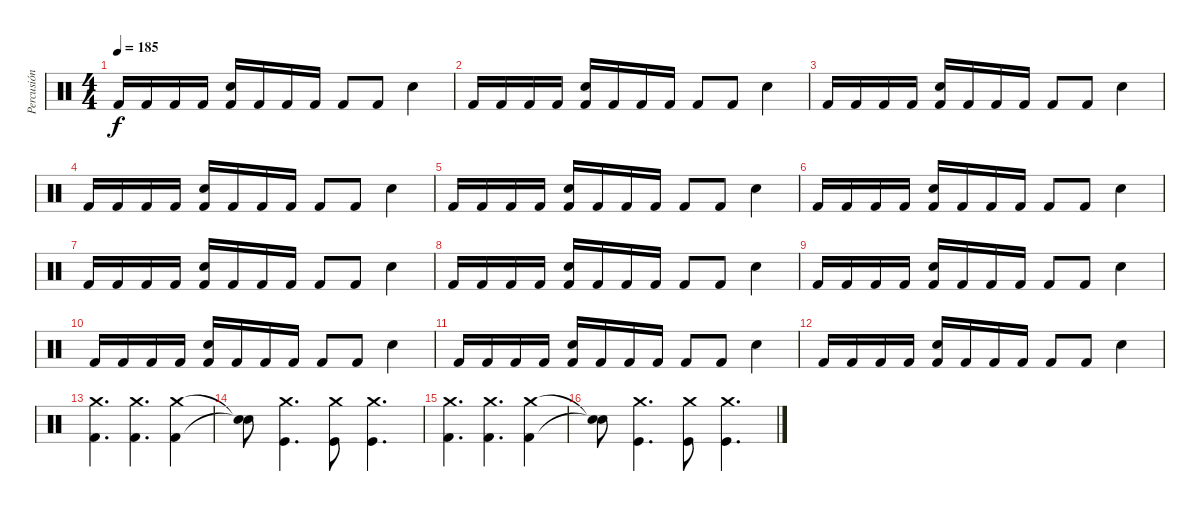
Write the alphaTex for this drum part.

\track ("Percusión" "Percusión") {instrument percussion}
\staff {score}
\articulation defaults
\ts (4 4)
\tempo 185
\clef neutral
\ks c "Kick (hit) 2".16{dy f} "Kick (hit) 2".16 "Kick (hit) 2".16 "Kick (hit) 2".16
("Snare (hit) 2" "Kick (hit) 2").16 "Kick (hit) 2".16 "Kick (hit) 2".16 "Kick (hit) 2".16 "Kick (hit) 2".8 "Kick (hit) 2".8 "Snare (hit) 2".4 |
"Kick (hit) 2".16 "Kick (hit) 2".16 "Kick (hit) 2".16 "Kick (hit) 2".16 ("Snare (hit) 2" "Kick (hit) 2").16 "Kick (hit) 2".16 "Kick (hit) 2".16 "Kick (hit) 2".16 "Kick (hit) 2".8 "Kick (hit) 2".8 "Snare (hit) 2".4 |
"Kick (hit) 2".16 "Kick (hit) 2".16 "Kick (hit) 2".16 "Kick (hit) 2".16 ("Snare (hit) 2" "Kick (hit) 2").16 "Kick (hit) 2".16 "Kick (hit) 2".16 "Kick (hit) 2".16 "Kick (hit) 2".8 "Kick (hit) 2".8 "Snare (hit) 2".4 |
"Kick (hit) 2".16 "Kick (hit) 2".16 "Kick (hit) 2".16 "Kick (hit) 2".16 ("Snare (hit) 2" "Kick (hit) 2").16 "Kick (hit) 2".16 "Kick (hit) 2".16 "Kick (hit) 2".16 "Kick (hit) 2".8 "Kick (hit) 2".8 "Snare (hit) 2".4 |
"Kick (hit) 2".16 "Kick (hit) 2".16 "Kick (hit) 2".16 "Kick (hit) 2".16 ("Snare (hit) 2" "Kick (hit) 2").16 "Kick (hit) 2".16 "Kick (hit) 2".16 "Kick (hit) 2".16 "Kick (hit) 2".8 "Kick (hit) 2".8 "Snare (hit) 2".4 |
"Kick (hit) 2".16 "Kick (hit) 2".16 "Kick (hit) 2".16 "Kick (hit) 2".16 ("Snare (hit) 2" "Kick (hit) 2").16 "Kick (hit) 2".16 "Kick (hit) 2".16 "Kick (hit) 2".16 "Kick (hit) 2".8 "Kick (hit) 2".8 "Snare (hit) 2".4 |
"Kick (hit) 2".16 "Kick (hit) 2".16 "Kick (hit) 2".16 "Kick (hit) 2".16 ("Snare (hit) 2" "Kick (hit) 2").16 "Kick (hit) 2".16 "Kick (hit) 2".16 "Kick (hit) 2".16 "Kick (hit) 2".8 "Kick (hit) 2".8 "Snare (hit) 2".4 |
"Kick (hit) 2".16 "Kick (hit) 2".16 "Kick (hit) 2".16 "Kick (hit) 2".16 ("Snare (hit) 2" "Kick (hit) 2").16 "Kick (hit) 2".16 "Kick (hit) 2".16 "Kick (hit) 2".16 "Kick (hit) 2".8 "Kick (hit) 2".8 "Snare (hit) 2".4 |
"Kick (hit) 2".16 "Kick (hit) 2".16 "Kick (hit) 2".16 "Kick (hit) 2".16 ("Snare (hit) 2" "Kick (hit) 2").16 "Kick (hit) 2".16 "Kick (hit) 2".16 "Kick (hit) 2".16 "Kick (hit) 2".8 "Kick (hit) 2".8 "Snare (hit) 2".4 |
"Kick (hit) 2".16 "Kick (hit) 2".16 "Kick (hit) 2".16 "Kick (hit) 2".16 ("Snare (hit) 2" "Kick (hit) 2").16 "Kick (hit) 2".16 "Kick (hit) 2".16 "Kick (hit) 2".16 "Kick (hit) 2".8 "Kick (hit) 2".8 "Snare (hit) 2".4 |
"Kick (hit) 2".16 "Kick (hit) 2".16 "Kick (hit) 2".16 "Kick (hit) 2".16 ("Snare (hit) 2" "Kick (hit) 2").16 "Kick (hit) 2".16 "Kick (hit) 2".16 "Kick (hit) 2".16 "Kick (hit) 2".8 "Kick (hit) 2".8 "Snare (hit) 2".4 |
"Kick (hit) 2".16 "Kick (hit) 2".16 "Kick (hit) 2".16 "Kick (hit) 2".16 ("Snare (hit) 2" "Kick (hit) 2").16 "Kick (hit) 2".16 "Kick (hit) 2".16 "Kick (hit) 2".16 "Kick (hit) 2".8 "Kick (hit) 2".8 "Snare (hit) 2".4 |
("Crash medium (hit)" "Kick (hit) 2").4{d} ("Crash medium (hit)" "Kick (hit) 2").4{d} ("Crash medium (hit)" "Kick (hit) 2").4 |
("Snare (hit)"{t} "Snare (hit)"{t}).8 ("Crash medium (hit)" "Kick (hit)").4{d} ("Crash medium (hit)" "Kick (hit)").8 ("Crash medium (hit)" "Kick (hit)").4{d} |
("Crash medium (hit)" "Kick (hit) 2").4{d} ("Crash medium (hit)" "Kick (hit) 2").4{d} ("Crash medium (hit)" "Kick (hit) 2").4 |
("Snare (hit)"{t} "Snare (hit)"{t}).8 ("Crash medium (hit)" "Kick (hit)").4{d} ("Crash medium (hit)" "Kick (hit)").8 ("Crash medium (hit)" "Kick (hit)").4{d}
